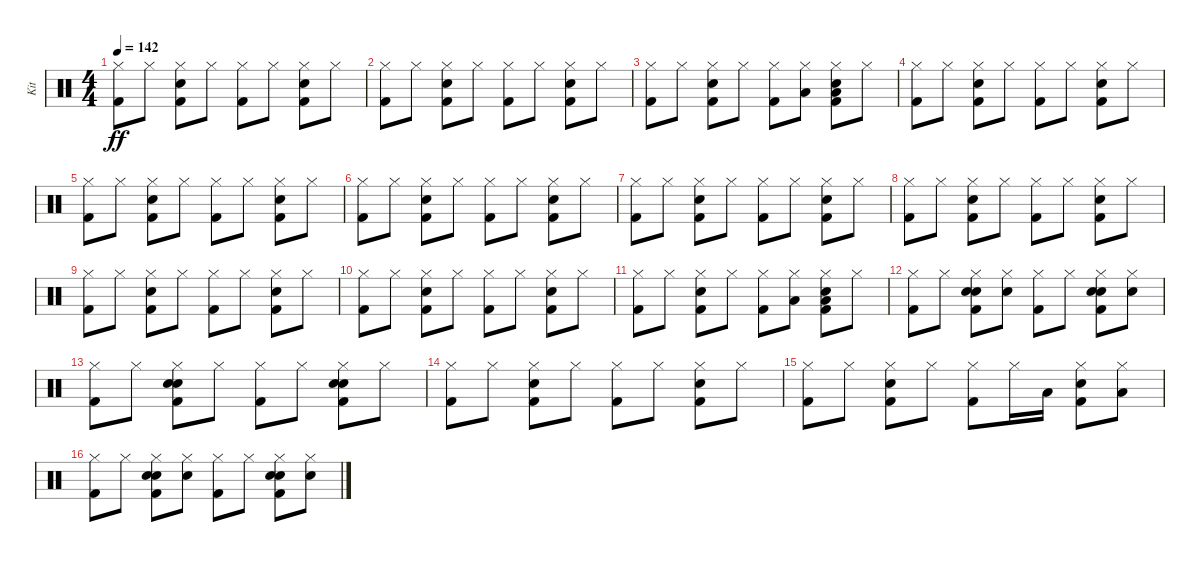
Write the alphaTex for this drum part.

\track ("Kit" "Kit") {instrument percussion}
\staff {score}
\articulation defaults
\ts (4 4)
\tempo 142
\clef neutral
\ks c
("Kick (hit) 2" "Hi-Hat (closed)").8{dy ff} "Hi-Hat (closed)".8 ("Kick (hit) 2" "Electric Snare (hit)" "Hi-Hat (closed)").8 "Hi-Hat (closed)".8 ("Kick (hit) 2" "Hi-Hat (closed)").8 "Hi-Hat (closed)".8 ("Kick (hit) 2" "Electric Snare (hit)" "Hi-Hat (closed)").8 "Hi-Hat (closed)".8 |
("Kick (hit) 2" "Hi-Hat (closed)").8 "Hi-Hat (closed)".8 ("Kick (hit) 2" "Electric Snare (hit)" "Hi-Hat (closed)").8 "Hi-Hat (closed)".8 ("Kick (hit) 2" "Hi-Hat (closed)").8 "Hi-Hat (closed)".8 ("Kick (hit) 2" "Electric Snare (hit)" "Hi-Hat (closed)").8 "Hi-Hat (closed)".8 |
("Kick (hit) 2" "Hi-Hat (closed)").8 "Hi-Hat (closed)".8 ("Kick (hit) 2" "Electric Snare (hit)" "Hi-Hat (closed)").8 "Hi-Hat (closed)".8 ("Kick (hit) 2" "Hi-Hat (closed)").8 ("Low Floor Tom (hit)" "Hi-Hat (closed)").8 ("Kick (hit) 2" "Electric Snare (hit)" "Low Floor Tom (hit)" "Hi-Hat (closed)").8 "Hi-Hat (closed)".8 |
("Kick (hit) 2" "Hi-Hat (closed)").8 "Hi-Hat (closed)".8 ("Kick (hit) 2" "Electric Snare (hit)" "Hi-Hat (closed)").8 "Hi-Hat (closed)".8 ("Kick (hit) 2" "Hi-Hat (closed)").8 "Hi-Hat (closed)".8 ("Kick (hit) 2" "Electric Snare (hit)" "Hi-Hat (closed)").8 "Hi-Hat (closed)".8 |
("Kick (hit) 2" "Hi-Hat (closed)").8 "Hi-Hat (closed)".8 ("Kick (hit) 2" "Electric Snare (hit)" "Hi-Hat (closed)").8 "Hi-Hat (closed)".8 ("Kick (hit) 2" "Hi-Hat (closed)").8 "Hi-Hat (closed)".8 ("Kick (hit) 2" "Electric Snare (hit)" "Hi-Hat (closed)").8 "Hi-Hat (closed)".8 |
("Kick (hit) 2" "Hi-Hat (closed)").8 "Hi-Hat (closed)".8 ("Kick (hit) 2" "Electric Snare (hit)" "Hi-Hat (closed)").8 "Hi-Hat (closed)".8 ("Kick (hit) 2" "Hi-Hat (closed)").8 "Hi-Hat (closed)".8 ("Kick (hit) 2" "Electric Snare (hit)" "Hi-Hat (closed)").8 "Hi-Hat (closed)".8 |
("Kick (hit) 2" "Hi-Hat (closed)").8 "Hi-Hat (closed)".8 ("Kick (hit) 2" "Electric Snare (hit)" "Hi-Hat (closed)").8 "Hi-Hat (closed)".8 ("Kick (hit) 2" "Hi-Hat (closed)").8 "Hi-Hat (closed)".8 ("Kick (hit) 2" "Electric Snare (hit)" "Hi-Hat (closed)").8 "Hi-Hat (closed)".8 |
("Kick (hit) 2" "Hi-Hat (closed)").8 "Hi-Hat (closed)".8 ("Kick (hit) 2" "Electric Snare (hit)" "Hi-Hat (closed)").8 "Hi-Hat (closed)".8 ("Kick (hit) 2" "Hi-Hat (closed)").8 "Hi-Hat (closed)".8 ("Kick (hit) 2" "Electric Snare (hit)" "Hi-Hat (closed)").8 "Hi-Hat (closed)".8 |
("Kick (hit) 2" "Hi-Hat (closed)").8 "Hi-Hat (closed)".8 ("Kick (hit) 2" "Electric Snare (hit)" "Hi-Hat (closed)").8 "Hi-Hat (closed)".8 ("Kick (hit) 2" "Hi-Hat (closed)").8 "Hi-Hat (closed)".8 ("Kick (hit) 2" "Electric Snare (hit)" "Hi-Hat (closed)").8 "Hi-Hat (closed)".8 |
("Kick (hit) 2" "Hi-Hat (closed)").8 "Hi-Hat (closed)".8 ("Kick (hit) 2" "Electric Snare (hit)" "Hi-Hat (closed)").8 "Hi-Hat (closed)".8 ("Kick (hit) 2" "Hi-Hat (closed)").8 "Hi-Hat (closed)".8 ("Kick (hit) 2" "Electric Snare (hit)" "Hi-Hat (closed)").8 "Hi-Hat (closed)".8 |
("Kick (hit) 2" "Hi-Hat (closed)").8 "Hi-Hat (closed)".8 ("Kick (hit) 2" "Electric Snare (hit)" "Hi-Hat (closed)").8 "Hi-Hat (closed)".8 ("Kick (hit) 2" "Hi-Hat (closed)").8 ("Low Floor Tom (hit)" "Hi-Hat (closed)").8 ("Kick (hit) 2" "Electric Snare (hit)" "Low Floor Tom (hit)" "Hi-Hat (closed)").8 "Hi-Hat (closed)".8 |
("Kick (hit) 2" "Hi-Hat (closed)").8 "Hi-Hat (closed)".8 ("Kick (hit) 2" "Hand Clap (hit)" "Electric Snare (hit)" "Hi-Hat (closed)").8 ("Hand Clap (hit)" "Hi-Hat (closed)").8 ("Kick (hit) 2" "Hi-Hat (closed)").8 "Hi-Hat (closed)".8 ("Kick (hit) 2" "Hand Clap (hit)" "Electric Snare (hit)" "Hi-Hat (closed)").8 ("Hand Clap (hit)" "Hi-Hat (closed)").8 |
("Kick (hit) 2" "Hi-Hat (closed)").8 "Hi-Hat (closed)".8 ("Kick (hit) 2" "Hand Clap (hit)" "Electric Snare (hit)" "Hi-Hat (closed)").8 "Hi-Hat (closed)".8 ("Kick (hit) 2" "Hi-Hat (closed)").8 "Hi-Hat (closed)".8 ("Kick (hit) 2" "Hand Clap (hit)" "Electric Snare (hit)" "Hi-Hat (closed)").8 "Hi-Hat (closed)".8 |
("Kick (hit) 2" "Hi-Hat (closed)").8 "Hi-Hat (closed)".8 ("Kick (hit) 2" "Electric Snare (hit)" "Hi-Hat (closed)").8 "Hi-Hat (closed)".8 ("Kick (hit) 2" "Hi-Hat (closed)").8 "Hi-Hat (closed)".8 ("Kick (hit) 2" "Electric Snare (hit)" "Hi-Hat (closed)").8 "Hi-Hat (closed)".8 |
("Kick (hit) 2" "Hi-Hat (closed)").8 "Hi-Hat (closed)".8 ("Kick (hit) 2" "Electric Snare (hit)" "Hi-Hat (closed)").8 "Hi-Hat (closed)".8 ("Kick (hit) 2" "Hi-Hat (closed)").8 "Hi-Hat (closed)".16 "Low Floor Tom (hit)".16 ("Kick (hit) 2" "Electric Snare (hit)" "Hi-Hat (closed)").8 ("Low Floor Tom (hit)" "Hi-Hat (closed)").8 |
("Kick (hit) 2" "Hi-Hat (closed)").8 "Hi-Hat (closed)".8 ("Kick (hit) 2" "Hand Clap (hit)" "Electric Snare (hit)" "Hi-Hat (closed)").8 ("Hand Clap (hit)" "Hi-Hat (closed)").8 ("Kick (hit) 2" "Hi-Hat (closed)").8 "Hi-Hat (closed)".8 ("Kick (hit) 2" "Hand Clap (hit)" "Electric Snare (hit)" "Hi-Hat (closed)").8 ("Hand Clap (hit)" "Hi-Hat (closed)").8
